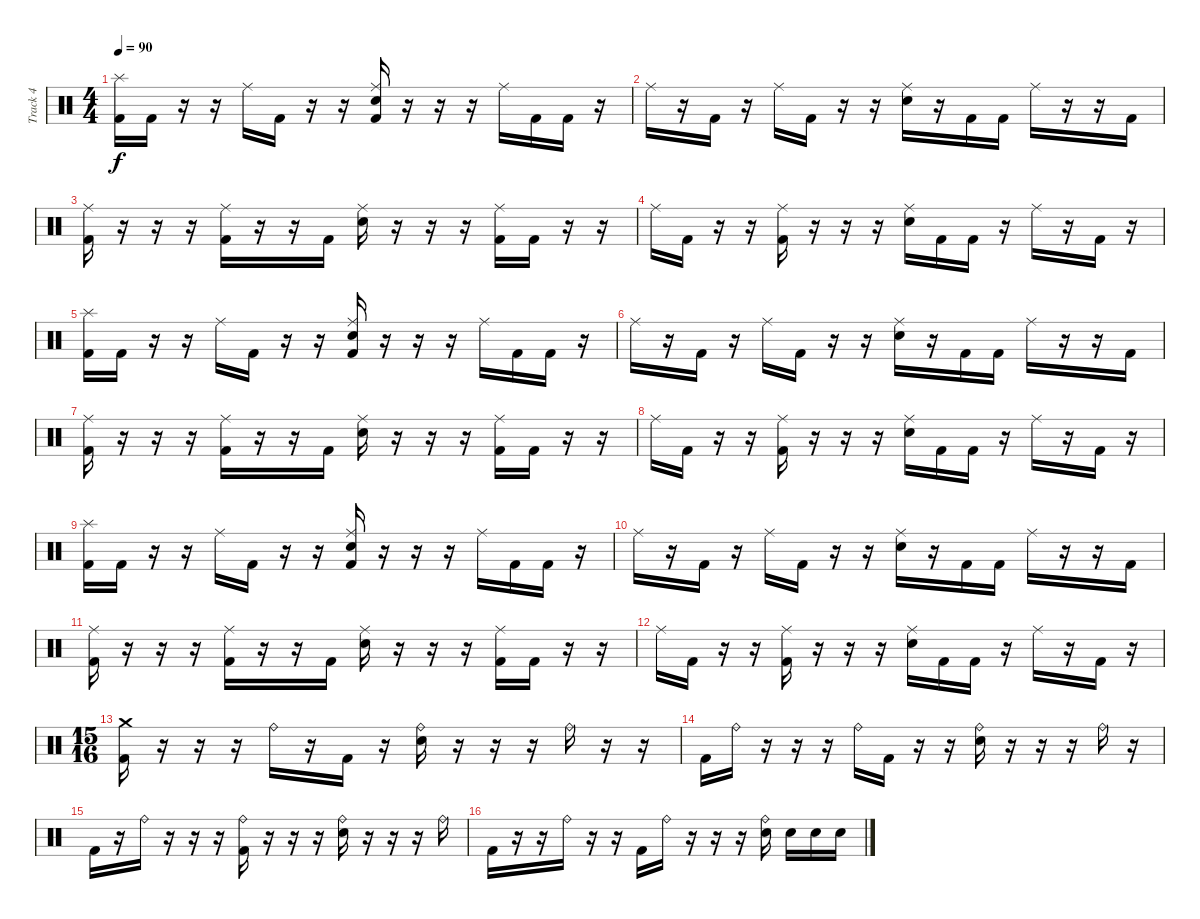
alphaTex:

\track ("Track 4" "Track 4") {instrument percussion}
\staff {score}
\articulation defaults
\ts (4 4)
\tempo 90
\clef neutral
\ks c
("Splash (hit)" "Kick (hit) 2").16{dy f} "Kick (hit) 2".16 r.16 r.16 "Ride (middle)".16 "Kick (hit) 2".16 r.16 r.16 ("Ride (middle)" "Electric Snare (hit)" "Kick (hit) 2").16 r.16 r.16 r.16 "Ride (middle)".16 "Kick (hit) 2".16 "Kick (hit) 2".16 r.16 |
"Ride (middle)".16 r.16 "Kick (hit) 2".16 r.16 "Ride (middle)".16 "Kick (hit) 2".16 r.16 r.16 ("Ride (middle)" "Electric Snare (hit)").16 r.16 "Kick (hit) 2".16 "Kick (hit) 2".16 "Ride (middle)".16 r.16 r.16 "Kick (hit) 2".16 |
("Ride (middle)" "Kick (hit) 2").16 r.16 r.16 r.16 ("Ride (middle)" "Kick (hit) 2").16 r.16 r.16 "Kick (hit) 2".16 ("Ride (middle)" "Electric Snare (hit)").16 r.16 r.16 r.16 ("Ride (middle)" "Kick (hit) 2").16 "Kick (hit) 2".16 r.16 r.16 |
"Ride (middle)".16 "Kick (hit) 2".16 r.16 r.16 ("Ride (middle)" "Kick (hit) 2").16 r.16 r.16 r.16 ("Ride (middle)" "Electric Snare (hit)").16 "Kick (hit) 2".16 "Kick (hit) 2".16 r.16 "Ride (middle)".16 r.16 "Kick (hit) 2".16 r.16 |
("Splash (hit)" "Kick (hit) 2").16 "Kick (hit) 2".16 r.16 r.16 "Ride (middle)".16 "Kick (hit) 2".16 r.16 r.16 ("Ride (middle)" "Electric Snare (hit)" "Kick (hit) 2").16 r.16 r.16 r.16 "Ride (middle)".16 "Kick (hit) 2".16 "Kick (hit) 2".16 r.16 |
"Ride (middle)".16 r.16 "Kick (hit) 2".16 r.16 "Ride (middle)".16 "Kick (hit) 2".16 r.16 r.16 ("Ride (middle)" "Electric Snare (hit)").16 r.16 "Kick (hit) 2".16 "Kick (hit) 2".16 "Ride (middle)".16 r.16 r.16 "Kick (hit) 2".16 |
("Ride (middle)" "Kick (hit) 2").16 r.16 r.16 r.16 ("Ride (middle)" "Kick (hit) 2").16 r.16 r.16 "Kick (hit) 2".16 ("Ride (middle)" "Electric Snare (hit)").16 r.16 r.16 r.16 ("Ride (middle)" "Kick (hit) 2").16 "Kick (hit) 2".16 r.16 r.16 |
"Ride (middle)".16 "Kick (hit) 2".16 r.16 r.16 ("Ride (middle)" "Kick (hit) 2").16 r.16 r.16 r.16 ("Ride (middle)" "Electric Snare (hit)").16 "Kick (hit) 2".16 "Kick (hit) 2".16 r.16 "Ride (middle)".16 r.16 "Kick (hit) 2".16 r.16 |
("Splash (hit)" "Kick (hit) 2").16 "Kick (hit) 2".16 r.16 r.16 "Ride (middle)".16 "Kick (hit) 2".16 r.16 r.16 ("Ride (middle)" "Electric Snare (hit)" "Kick (hit) 2").16 r.16 r.16 r.16 "Ride (middle)".16 "Kick (hit) 2".16 "Kick (hit) 2".16 r.16 |
"Ride (middle)".16 r.16 "Kick (hit) 2".16 r.16 "Ride (middle)".16 "Kick (hit) 2".16 r.16 r.16 ("Ride (middle)" "Electric Snare (hit)").16 r.16 "Kick (hit) 2".16 "Kick (hit) 2".16 "Ride (middle)".16 r.16 r.16 "Kick (hit) 2".16 |
("Ride (middle)" "Kick (hit) 2").16 r.16 r.16 r.16 ("Ride (middle)" "Kick (hit) 2").16 r.16 r.16 "Kick (hit) 2".16 ("Ride (middle)" "Electric Snare (hit)").16 r.16 r.16 r.16 ("Ride (middle)" "Kick (hit) 2").16 "Kick (hit) 2".16 r.16 r.16 |
"Ride (middle)".16 "Kick (hit) 2".16 r.16 r.16 ("Ride (middle)" "Kick (hit) 2").16 r.16 r.16 r.16 ("Ride (middle)" "Electric Snare (hit)").16 "Kick (hit) 2".16 "Kick (hit) 2".16 r.16 "Ride (middle)".16 r.16 "Kick (hit) 2".16 r.16 |
\ts (15 16)
("Crash medium (hit)" "Kick (hit) 2").16 r.16 r.16 r.16 "Ride (bell)".16 r.16 "Kick (hit) 2".16 r.16 ("Ride (bell)" "Electric Snare (hit)").16 r.16 r.16 r.16 "Ride (bell)".16 r.16 r.16 |
"Kick (hit) 2".16 "Ride (bell)".16 r.16 r.16 r.16 "Ride (bell)".16 "Kick (hit) 2".16 r.16 r.16 ("Ride (bell)" "Electric Snare (hit)").16 r.16 r.16 r.16 "Ride (bell)".16 r.16 |
"Kick (hit) 2".16 r.16 "Ride (bell)".16 r.16 r.16 r.16 ("Ride (bell)" "Kick (hit) 2").16 r.16 r.16 r.16 ("Ride (bell)" "Electric Snare (hit)").16 r.16 r.16 r.16 "Ride (bell)".16 |
"Kick (hit) 2".16 r.16 r.16 "Ride (bell)".16 r.16 r.16 "Kick (hit) 2".16 "Ride (bell)".16 r.16 r.16 r.16 ("Ride (bell)" "Electric Snare (hit)").16 "Electric Snare (hit)".16 "Electric Snare (hit)".16 "Electric Snare (hit)".16
